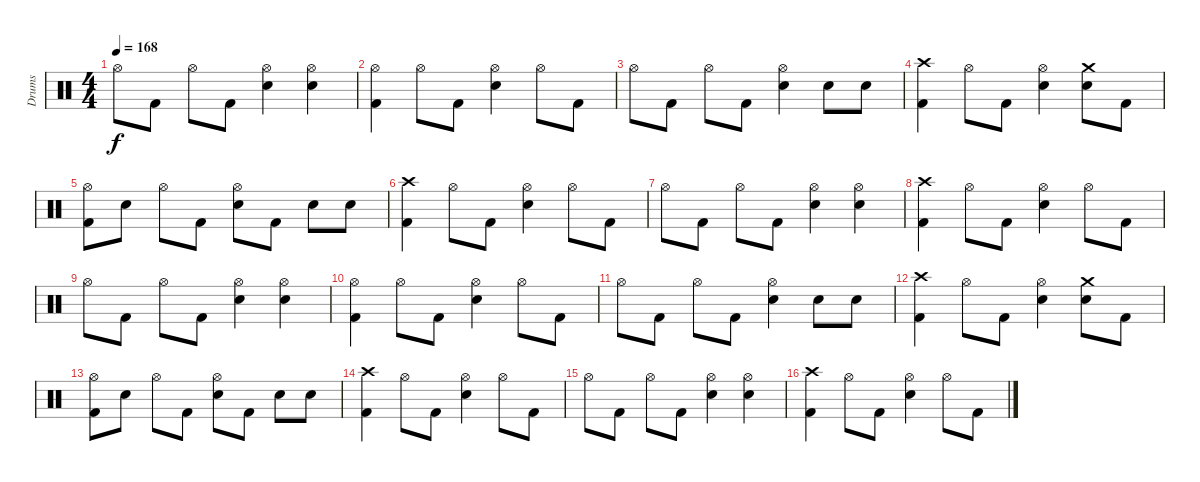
\track ("Drums" "Drums") {instrument percussion}
\staff {score}
\articulation defaults
\ts (4 4)
\tempo 168
\clef neutral
\ks c "Hi-Hat (open)".8{dy f} "Kick (hit) 2".8 "Hi-Hat (open)".8 "Kick (hit) 2".8
("Hi-Hat (open)" "Snare (hit) 2").4 ("Hi-Hat (open)" "Snare (hit) 2").4 |
("Hi-Hat (open)" "Kick (hit) 2").4 "Hi-Hat (open)".8 "Kick (hit) 2".8 ("Hi-Hat (open)" "Snare (hit) 2").4 "Hi-Hat (open)".8 "Kick (hit) 2".8 |
"Hi-Hat (open)".8 "Kick (hit) 2".8 "Hi-Hat (open)".8 "Kick (hit) 2".8 ("Hi-Hat (open)" "Snare (hit) 2").4 "Snare (hit) 2".8 "Snare (hit) 2".8 |
("Crash high (hit)" "Kick (hit) 2").4 "Hi-Hat (open)".8 "Kick (hit) 2".8 ("Hi-Hat (open)" "Snare (hit) 2").4 ("Crash medium (hit)" "Snare (hit) 2").8 "Kick (hit) 2".8 |
("Hi-Hat (open)" "Kick (hit) 2").8 "Snare (hit) 2".8 "Hi-Hat (open)".8 "Kick (hit) 2".8 ("Hi-Hat (open)" "Snare (hit) 2").8 "Kick (hit) 2".8 "Snare (hit) 2".8 "Snare (hit) 2".8 |
("Crash high (hit)" "Kick (hit) 2").4 "Hi-Hat (open)".8 "Kick (hit) 2".8 ("Hi-Hat (open)" "Snare (hit) 2").4 "Hi-Hat (open)".8 "Kick (hit) 2".8 |
"Hi-Hat (open)".8 "Kick (hit) 2".8 "Hi-Hat (open)".8 "Kick (hit) 2".8 ("Hi-Hat (open)" "Snare (hit) 2").4 ("Hi-Hat (open)" "Snare (hit) 2").4 |
("Crash high (hit)" "Kick (hit) 2").4 "Hi-Hat (open)".8 "Kick (hit) 2".8 ("Hi-Hat (open)" "Snare (hit) 2").4 "Hi-Hat (open)".8 "Kick (hit) 2".8 |
"Hi-Hat (open)".8 "Kick (hit) 2".8 "Hi-Hat (open)".8 "Kick (hit) 2".8 ("Hi-Hat (open)" "Snare (hit) 2").4 ("Hi-Hat (open)" "Snare (hit) 2").4 |
("Hi-Hat (open)" "Kick (hit) 2").4 "Hi-Hat (open)".8 "Kick (hit) 2".8 ("Hi-Hat (open)" "Snare (hit) 2").4 "Hi-Hat (open)".8 "Kick (hit) 2".8 |
"Hi-Hat (open)".8 "Kick (hit) 2".8 "Hi-Hat (open)".8 "Kick (hit) 2".8 ("Hi-Hat (open)" "Snare (hit) 2").4 "Snare (hit) 2".8 "Snare (hit) 2".8 |
("Crash high (hit)" "Kick (hit) 2").4 "Hi-Hat (open)".8 "Kick (hit) 2".8 ("Hi-Hat (open)" "Snare (hit) 2").4 ("Crash medium (hit)" "Snare (hit) 2").8 "Kick (hit) 2".8 |
("Hi-Hat (open)" "Kick (hit) 2").8 "Snare (hit) 2".8 "Hi-Hat (open)".8 "Kick (hit) 2".8 ("Hi-Hat (open)" "Snare (hit) 2").8 "Kick (hit) 2".8 "Snare (hit) 2".8 "Snare (hit) 2".8 |
("Crash high (hit)" "Kick (hit) 2").4 "Hi-Hat (open)".8 "Kick (hit) 2".8 ("Hi-Hat (open)" "Snare (hit) 2").4 "Hi-Hat (open)".8 "Kick (hit) 2".8 |
"Hi-Hat (open)".8 "Kick (hit) 2".8 "Hi-Hat (open)".8 "Kick (hit) 2".8 ("Hi-Hat (open)" "Snare (hit) 2").4 ("Hi-Hat (open)" "Snare (hit) 2").4 |
("Crash high (hit)" "Kick (hit) 2").4 "Hi-Hat (open)".8 "Kick (hit) 2".8 ("Hi-Hat (open)" "Snare (hit) 2").4 "Hi-Hat (open)".8 "Kick (hit) 2".8
